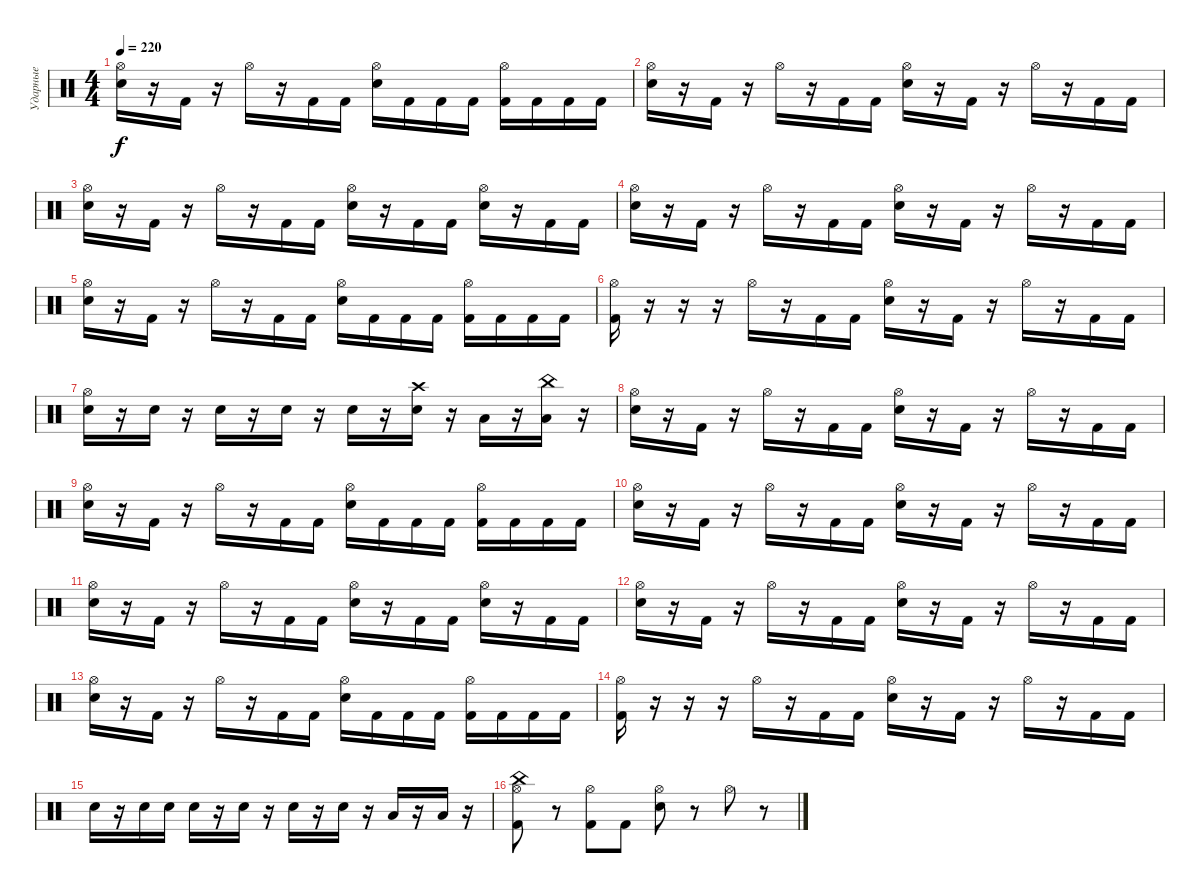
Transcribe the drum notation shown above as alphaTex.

\track ("Ударные" "Ударные") {instrument percussion}
\staff {score}
\articulation defaults
\ts (4 4)
\tempo 220
\clef neutral
\ks c
("Electric Snare (hit)" "Hi-Hat (open)").16{dy f} r.16 "Kick (hit) 2".16 r.16 "Hi-Hat (open)".16 r.16 "Kick (hit) 2".16 "Kick (hit) 2".16 ("Electric Snare (hit)" "Hi-Hat (open)").16 "Kick (hit) 2".16 "Kick (hit) 2".16 "Kick (hit) 2".16 ("Kick (hit) 2" "Hi-Hat (open)").16 "Kick (hit) 2".16 "Kick (hit) 2".16 "Kick (hit) 2".16 |
("Hi-Hat (open)" "Electric Snare (hit)").16 r.16 "Kick (hit) 2".16 r.16 "Hi-Hat (open)".16 r.16 "Kick (hit) 2".16 "Kick (hit) 2".16 ("Electric Snare (hit)" "Hi-Hat (open)").16 r.16 "Kick (hit) 2".16 r.16 "Hi-Hat (open)".16 r.16 "Kick (hit) 2".16 "Kick (hit) 2".16 |
("Electric Snare (hit)" "Hi-Hat (open)").16 r.16 "Kick (hit) 2".16 r.16 "Hi-Hat (open)".16 r.16 "Kick (hit) 2".16 "Kick (hit) 2".16 ("Electric Snare (hit)" "Hi-Hat (open)").16 r.16 "Kick (hit) 2".16 "Kick (hit) 2".16 ("Electric Snare (hit)" "Hi-Hat (open)").16 r.16 "Kick (hit) 2".16 "Kick (hit) 2".16 |
("Electric Snare (hit)" "Hi-Hat (open)").16 r.16 "Kick (hit) 2".16 r.16 "Hi-Hat (open)".16 r.16 "Kick (hit) 2".16 "Kick (hit) 2".16 ("Electric Snare (hit)" "Hi-Hat (open)").16 r.16 "Kick (hit) 2".16 r.16 "Hi-Hat (open)".16 r.16 "Kick (hit) 2".16 "Kick (hit) 2".16 |
("Electric Snare (hit)" "Hi-Hat (open)").16 r.16 "Kick (hit) 2".16 r.16 "Hi-Hat (open)".16 r.16 "Kick (hit) 2".16 "Kick (hit) 2".16 ("Electric Snare (hit)" "Hi-Hat (open)").16 "Kick (hit) 2".16 "Kick (hit) 2".16 "Kick (hit) 2".16 ("Kick (hit) 2" "Hi-Hat (open)").16 "Kick (hit) 2".16 "Kick (hit) 2".16 "Kick (hit) 2".16 |
("Kick (hit) 2" "Hi-Hat (open)").16 r.16 r.16 r.16 "Hi-Hat (open)".16 r.16 "Kick (hit) 2".16 "Kick (hit) 2".16 ("Electric Snare (hit)" "Hi-Hat (open)").16 r.16 "Kick (hit) 2".16 r.16 "Hi-Hat (open)".16 r.16 "Kick (hit) 2".16 "Kick (hit) 2".16 |
("Electric Snare (hit)" "Hi-Hat (open)").16 r.16 "Electric Snare (hit)".16 r.16 "Electric Snare (hit)".16 r.16 "Snare (hit) 2".16 r.16 "Snare (hit) 2".16 r.16 ("Snare (hit) 2" "Crash high (hit)").16 r.16 "Low Tom (hit)".16 r.16 ("Low Tom (hit)" "China (hit)").16 r.16 |
("Electric Snare (hit)" "Hi-Hat (open)").16 r.16 "Kick (hit) 2".16 r.16 "Hi-Hat (open)".16 r.16 "Kick (hit) 2".16 "Kick (hit) 2".16 ("Electric Snare (hit)" "Hi-Hat (open)").16 r.16 "Kick (hit) 2".16 r.16 "Hi-Hat (open)".16 r.16 "Kick (hit) 2".16 "Kick (hit) 2".16 |
("Electric Snare (hit)" "Hi-Hat (open)").16 r.16 "Kick (hit) 2".16 r.16 "Hi-Hat (open)".16 r.16 "Kick (hit) 2".16 "Kick (hit) 2".16 ("Electric Snare (hit)" "Hi-Hat (open)").16 "Kick (hit) 2".16 "Kick (hit) 2".16 "Kick (hit) 2".16 ("Kick (hit) 2" "Hi-Hat (open)").16 "Kick (hit) 2".16 "Kick (hit) 2".16 "Kick (hit) 2".16 |
("Hi-Hat (open)" "Electric Snare (hit)").16 r.16 "Kick (hit) 2".16 r.16 "Hi-Hat (open)".16 r.16 "Kick (hit) 2".16 "Kick (hit) 2".16 ("Electric Snare (hit)" "Hi-Hat (open)").16 r.16 "Kick (hit) 2".16 r.16 "Hi-Hat (open)".16 r.16 "Kick (hit) 2".16 "Kick (hit) 2".16 |
("Electric Snare (hit)" "Hi-Hat (open)").16 r.16 "Kick (hit) 2".16 r.16 "Hi-Hat (open)".16 r.16 "Kick (hit) 2".16 "Kick (hit) 2".16 ("Electric Snare (hit)" "Hi-Hat (open)").16 r.16 "Kick (hit) 2".16 "Kick (hit) 2".16 ("Electric Snare (hit)" "Hi-Hat (open)").16 r.16 "Kick (hit) 2".16 "Kick (hit) 2".16 |
("Electric Snare (hit)" "Hi-Hat (open)").16 r.16 "Kick (hit) 2".16 r.16 "Hi-Hat (open)".16 r.16 "Kick (hit) 2".16 "Kick (hit) 2".16 ("Electric Snare (hit)" "Hi-Hat (open)").16 r.16 "Kick (hit) 2".16 r.16 "Hi-Hat (open)".16 r.16 "Kick (hit) 2".16 "Kick (hit) 2".16 |
("Electric Snare (hit)" "Hi-Hat (open)").16 r.16 "Kick (hit) 2".16 r.16 "Hi-Hat (open)".16 r.16 "Kick (hit) 2".16 "Kick (hit) 2".16 ("Electric Snare (hit)" "Hi-Hat (open)").16 "Kick (hit) 2".16 "Kick (hit) 2".16 "Kick (hit) 2".16 ("Kick (hit) 2" "Hi-Hat (open)").16 "Kick (hit) 2".16 "Kick (hit) 2".16 "Kick (hit) 2".16 |
("Kick (hit) 2" "Hi-Hat (open)").16 r.16 r.16 r.16 "Hi-Hat (open)".16 r.16 "Kick (hit) 2".16 "Kick (hit) 2".16 ("Electric Snare (hit)" "Hi-Hat (open)").16 r.16 "Kick (hit) 2".16 r.16 "Hi-Hat (open)".16 r.16 "Kick (hit) 2".16 "Kick (hit) 2".16 |
"Electric Snare (hit)".16 r.16 "Electric Snare (hit)".16 "Electric Snare (hit)".16 "Electric Snare (hit)".16 r.16 "Snare (hit) 2".16 r.16 "Snare (hit) 2".16 r.16 "Snare (hit) 2".16 r.16 "Low Tom (hit)".16 r.16 "Low Tom (hit)".16 r.16 |
("Kick (hit) 2" "Hi-Hat (open)" "China (hit)").8 r.8 ("Kick (hit) 2" "Hi-Hat (open)").8 "Kick (hit) 2".8 ("Electric Snare (hit)" "Hi-Hat (open)").8 r.8 "Hi-Hat (open)".8 r.8
